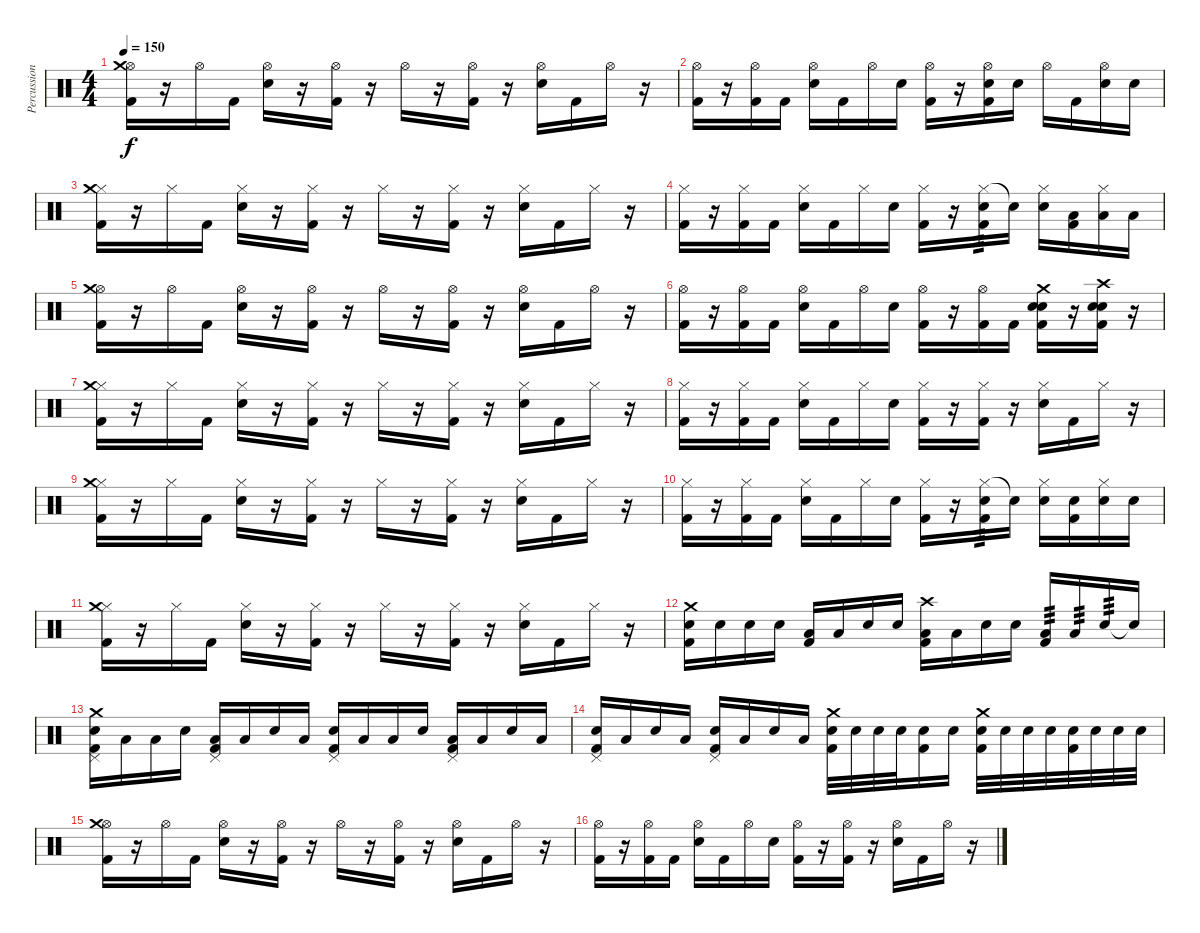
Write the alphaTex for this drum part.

\track ("Percussion" "Percussion") {instrument percussion}
\staff {score}
\articulation defaults
\ts (4 4)
\tempo 150
\clef neutral
\ks c
("Hi-Hat (open)" "Crash medium (hit)" "Kick (hit) 2").16{dy f} r.16 "Hi-Hat (open)".16 "Kick (hit) 2".16 ("Hi-Hat (open)" "Electric Snare (hit)").16 r.16 ("Hi-Hat (open)" "Kick (hit) 2").16 r.16 "Hi-Hat (open)".16 r.16 ("Hi-Hat (open)" "Kick (hit) 2").16 r.16 ("Hi-Hat (open)" "Electric Snare (hit)").16 "Kick (hit) 2".16 "Hi-Hat (open)".16 r.16 |
("Hi-Hat (open)" "Kick (hit) 2").16 r.16 ("Hi-Hat (open)" "Kick (hit) 2").16 "Kick (hit) 2".16 ("Hi-Hat (open)" "Electric Snare (hit)").16 "Kick (hit) 2".16 "Hi-Hat (open)".16 "Electric Snare (hit)".16 ("Hi-Hat (open)" "Kick (hit) 2").16 r.16 ("Hi-Hat (open)" "Electric Snare (hit)" "Kick (hit) 2").16 "Electric Snare (hit)".16 "Hi-Hat (open)".16 "Kick (hit) 2".16 ("Hi-Hat (open)" "Electric Snare (hit)").16 "Electric Snare (hit)".16 |
("Hi-Hat (closed)" "Crash medium (hit)" "Kick (hit) 2").16 r.16 "Hi-Hat (closed)".16 "Kick (hit) 2".16 ("Hi-Hat (closed)" "Electric Snare (hit)").16 r.16 ("Hi-Hat (closed)" "Kick (hit) 2").16 r.16 "Hi-Hat (closed)".16 r.16 ("Hi-Hat (closed)" "Kick (hit) 2").16 r.16 ("Hi-Hat (closed)" "Electric Snare (hit)").16 "Kick (hit) 2".16 "Hi-Hat (closed)".16 r.16 |
("Hi-Hat (closed)" "Kick (hit) 2").16 r.16 ("Hi-Hat (closed)" "Kick (hit) 2").16 "Kick (hit) 2".16 ("Hi-Hat (closed)" "Electric Snare (hit)").16 "Kick (hit) 2".16 "Hi-Hat (closed)".16 "Electric Snare (hit)".16 ("Hi-Hat (closed)" "Kick (hit) 2").16 r.16 ("Hi-Hat (closed)" "Electric Snare (hit)" "Kick (hit) 2").16{tp 3} "Snare (hit)"{t}.16 ("Hi-Hat (closed)" "Electric Snare (hit)").16 ("Low Tom (hit)" "Kick (hit) 2").16 ("Hi-Hat (closed)" "Low Tom (hit)").16 "Low Tom (hit)".16 |
("Hi-Hat (open)" "Crash medium (hit)" "Kick (hit) 2").16 r.16 "Hi-Hat (open)".16 "Kick (hit) 2".16 ("Hi-Hat (open)" "Electric Snare (hit)").16 r.16 ("Hi-Hat (open)" "Kick (hit) 2").16 r.16 "Hi-Hat (open)".16 r.16 ("Hi-Hat (open)" "Kick (hit) 2").16 r.16 ("Hi-Hat (open)" "Electric Snare (hit)").16 "Kick (hit) 2".16 "Hi-Hat (open)".16 r.16 |
("Hi-Hat (open)" "Kick (hit) 2").16 r.16 ("Hi-Hat (open)" "Kick (hit) 2").16 "Kick (hit) 2".16 ("Hi-Hat (open)" "Electric Snare (hit)").16 "Kick (hit) 2".16 "Hi-Hat (open)".16 "Electric Snare (hit)".16 ("Hi-Hat (open)" "Kick (hit) 2").16 r.16 ("Hi-Hat (open)" "Kick (hit) 2").16 "Kick (hit) 2".16 ("Crash medium (hit)" "Snare (hit) 2" "Electric Snare (hit)" "Kick (hit) 2").16 r.16 ("Crash high (hit)" "Snare (hit) 2" "Electric Snare (hit)" "Kick (hit) 2").16 r.16 |
("Hi-Hat (closed)" "Crash medium (hit)" "Kick (hit) 2").16 r.16 "Hi-Hat (closed)".16 "Kick (hit) 2".16 ("Hi-Hat (closed)" "Electric Snare (hit)").16 r.16 ("Hi-Hat (closed)" "Kick (hit) 2").16 r.16 "Hi-Hat (closed)".16 r.16 ("Hi-Hat (closed)" "Kick (hit) 2").16 r.16 ("Hi-Hat (closed)" "Electric Snare (hit)").16 "Kick (hit) 2".16 "Hi-Hat (closed)".16 r.16 |
("Hi-Hat (closed)" "Kick (hit) 2").16 r.16 ("Hi-Hat (closed)" "Kick (hit) 2").16 "Kick (hit) 2".16 ("Hi-Hat (closed)" "Electric Snare (hit)").16 "Kick (hit) 2".16 "Hi-Hat (closed)".16 "Electric Snare (hit)".16 ("Hi-Hat (closed)" "Kick (hit) 2").16 r.16 ("Hi-Hat (closed)" "Kick (hit) 2").16 r.16 ("Hi-Hat (closed)" "Electric Snare (hit)").16 "Kick (hit) 2".16 "Hi-Hat (closed)".16 r.16 |
("Hi-Hat (closed)" "Crash medium (hit)" "Kick (hit) 2").16 r.16 "Hi-Hat (closed)".16 "Kick (hit) 2".16 ("Hi-Hat (closed)" "Electric Snare (hit)").16 r.16 ("Hi-Hat (closed)" "Kick (hit) 2").16 r.16 "Hi-Hat (closed)".16 r.16 ("Hi-Hat (closed)" "Kick (hit) 2").16 r.16 ("Hi-Hat (closed)" "Electric Snare (hit)").16 "Kick (hit) 2".16 "Hi-Hat (closed)".16 r.16 |
("Hi-Hat (closed)" "Kick (hit) 2").16 r.16 ("Hi-Hat (closed)" "Kick (hit) 2").16 "Kick (hit) 2".16 ("Hi-Hat (closed)" "Electric Snare (hit)").16 "Kick (hit) 2".16 "Hi-Hat (closed)".16 "Electric Snare (hit)".16 ("Hi-Hat (closed)" "Kick (hit) 2").16 r.16 ("Hi-Hat (closed)" "Electric Snare (hit)" "Kick (hit) 2").16{tp 3} "Snare (hit)"{t}.16 ("Hi-Hat (closed)" "Electric Snare (hit)").16 ("Electric Snare (hit)" "Kick (hit) 2").16 ("Hi-Hat (closed)" "Electric Snare (hit)").16 "Electric Snare (hit)".16 |
("Hi-Hat (closed)" "Crash medium (hit)" "Kick (hit) 2").16 r.16 "Hi-Hat (closed)".16 "Kick (hit) 2".16 ("Hi-Hat (closed)" "Electric Snare (hit)").16 r.16 ("Hi-Hat (closed)" "Kick (hit) 2").16 r.16 "Hi-Hat (closed)".16 r.16 ("Hi-Hat (closed)" "Kick (hit) 2").16 r.16 ("Hi-Hat (closed)" "Electric Snare (hit)").16 "Kick (hit) 2".16 "Hi-Hat (closed)".16 r.16 |
("Crash medium (hit)" "Electric Snare (hit)" "Kick (hit) 2").16 "Electric Snare (hit)".16 "Electric Snare (hit)".16 "Electric Snare (hit)".16 ("Low Tom (hit)" "Kick (hit) 2").16 "Low Tom (hit)".16 "Electric Snare (hit)".16 "Electric Snare (hit)".16 ("Crash high (hit)" "Low Tom (hit)" "Kick (hit) 2").16 "Low Tom (hit)".16 "Electric Snare (hit)".16 "Electric Snare (hit)".16 ("Low Tom (hit)" "Kick (hit) 2").16{tp 3} "Low Tom (hit)".16{tp 3} "Electric Snare (hit)".16{tp 3} "Snare (hit)"{t}.16 |
("Pedal Hi-Hat (hit)" "Crash medium (hit)" "Electric Snare (hit)" "Kick (hit) 2").16 "Low Tom (hit)".16 "Low Tom (hit)".16 "Electric Snare (hit)".16 ("Pedal Hi-Hat (hit)" "Low Tom (hit)" "Kick (hit) 2").16 "Low Tom (hit)".16 "Electric Snare (hit)".16 "Low Tom (hit)".16 ("Pedal Hi-Hat (hit)" "Electric Snare (hit)" "Kick (hit) 2").16 "Low Tom (hit)".16 "Low Tom (hit)".16 "Electric Snare (hit)".16 ("Pedal Hi-Hat (hit)" "Low Tom (hit)" "Kick (hit) 2").16 "Low Tom (hit)".16 "Electric Snare (hit)".16 "Low Tom (hit)".16 |
("Pedal Hi-Hat (hit)" "Electric Snare (hit)" "Kick (hit) 2").16 "Low Tom (hit)".16 "Electric Snare (hit)".16 "Low Tom (hit)".16 ("Pedal Hi-Hat (hit)" "Electric Snare (hit)" "Kick (hit) 2").16 "Low Tom (hit)".16 "Electric Snare (hit)".16 "Low Tom (hit)".16 ("Crash medium (hit)" "Electric Snare (hit)" "Kick (hit) 2").32 "Electric Snare (hit)".32 "Electric Snare (hit)".32 "Electric Snare (hit)".32 ("Electric Snare (hit)" "Kick (hit) 2").16 "Electric Snare (hit)".16 ("Crash medium (hit)" "Electric Snare (hit)" "Kick (hit) 2").32 "Electric Snare (hit)".32 "Electric Snare (hit)".32 "Electric Snare (hit)".32 ("Electric Snare (hit)" "Kick (hit) 2").32 "Electric Snare (hit)".32 "Electric Snare (hit)".32 "Electric Snare (hit)".32 |
("Hi-Hat (open)" "Crash medium (hit)" "Kick (hit) 2").16 r.16 "Hi-Hat (open)".16 "Kick (hit) 2".16 ("Hi-Hat (open)" "Electric Snare (hit)").16 r.16 ("Hi-Hat (open)" "Kick (hit) 2").16 r.16 "Hi-Hat (open)".16 r.16 ("Hi-Hat (open)" "Kick (hit) 2").16 r.16 ("Hi-Hat (open)" "Electric Snare (hit)").16 "Kick (hit) 2".16 "Hi-Hat (open)".16 r.16 |
("Hi-Hat (open)" "Kick (hit) 2").16 r.16 ("Hi-Hat (open)" "Kick (hit) 2").16 "Kick (hit) 2".16 ("Hi-Hat (open)" "Electric Snare (hit)").16 "Kick (hit) 2".16 "Hi-Hat (open)".16 "Electric Snare (hit)".16 ("Hi-Hat (open)" "Kick (hit) 2").16 r.16 ("Hi-Hat (open)" "Kick (hit) 2").16 r.16 ("Hi-Hat (open)" "Electric Snare (hit)").16 "Kick (hit) 2".16 "Hi-Hat (open)".16 r.16
